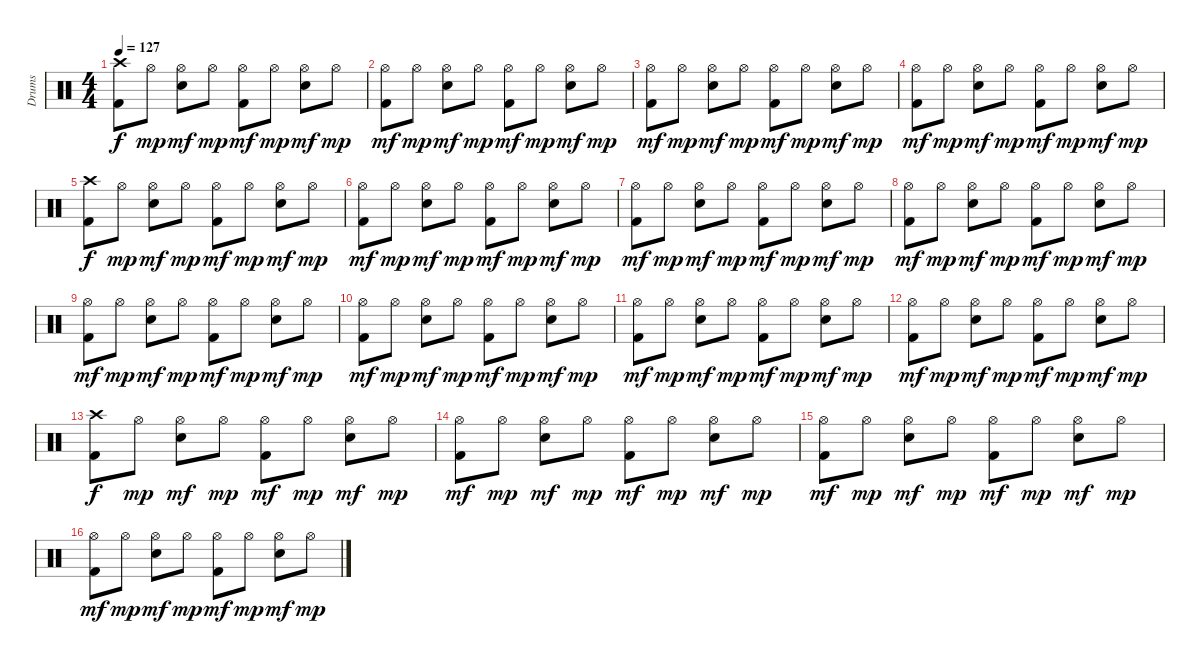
\track ("Drums" "Drums") {instrument percussion}
\staff {score}
\articulation defaults
\ts (4 4)
\tempo 127
\clef neutral
\ks c
("Crash high (hit)" "Kick (hit) 2").8{dy f} "Hi-Hat (open)".8{dy mp} ("Hi-Hat (open)" "Electric Snare (hit)").8{dy mf} "Hi-Hat (open)".8{dy mp} ("Hi-Hat (open)" "Kick (hit) 2").8{dy mf} "Hi-Hat (open)".8{dy mp} ("Hi-Hat (open)" "Electric Snare (hit)").8{dy mf} "Hi-Hat (open)".8{dy mp} |
("Hi-Hat (open)" "Kick (hit) 2").8{dy mf} "Hi-Hat (open)".8{dy mp} ("Hi-Hat (open)" "Electric Snare (hit)").8{dy mf} "Hi-Hat (open)".8{dy mp} ("Hi-Hat (open)" "Kick (hit) 2").8{dy mf} "Hi-Hat (open)".8{dy mp} ("Hi-Hat (open)" "Electric Snare (hit)").8{dy mf} "Hi-Hat (open)".8{dy mp} |
("Hi-Hat (open)" "Kick (hit) 2").8{dy mf} "Hi-Hat (open)".8{dy mp} ("Hi-Hat (open)" "Electric Snare (hit)").8{dy mf} "Hi-Hat (open)".8{dy mp} ("Hi-Hat (open)" "Kick (hit) 2").8{dy mf} "Hi-Hat (open)".8{dy mp} ("Hi-Hat (open)" "Electric Snare (hit)").8{dy mf} "Hi-Hat (open)".8{dy mp} |
("Hi-Hat (open)" "Kick (hit) 2").8{dy mf} "Hi-Hat (open)".8{dy mp} ("Hi-Hat (open)" "Electric Snare (hit)").8{dy mf} "Hi-Hat (open)".8{dy mp} ("Hi-Hat (open)" "Kick (hit) 2").8{dy mf} "Hi-Hat (open)".8{dy mp} ("Hi-Hat (open)" "Electric Snare (hit)").8{dy mf} "Hi-Hat (open)".8{dy mp} |
("Crash high (hit)" "Kick (hit) 2").8{dy f} "Hi-Hat (open)".8{dy mp} ("Hi-Hat (open)" "Electric Snare (hit)").8{dy mf} "Hi-Hat (open)".8{dy mp} ("Hi-Hat (open)" "Kick (hit) 2").8{dy mf} "Hi-Hat (open)".8{dy mp} ("Hi-Hat (open)" "Electric Snare (hit)").8{dy mf} "Hi-Hat (open)".8{dy mp} |
("Hi-Hat (open)" "Kick (hit) 2").8{dy mf} "Hi-Hat (open)".8{dy mp} ("Hi-Hat (open)" "Electric Snare (hit)").8{dy mf} "Hi-Hat (open)".8{dy mp} ("Hi-Hat (open)" "Kick (hit) 2").8{dy mf} "Hi-Hat (open)".8{dy mp} ("Hi-Hat (open)" "Electric Snare (hit)").8{dy mf} "Hi-Hat (open)".8{dy mp} |
("Hi-Hat (open)" "Kick (hit) 2").8{dy mf} "Hi-Hat (open)".8{dy mp} ("Hi-Hat (open)" "Electric Snare (hit)").8{dy mf} "Hi-Hat (open)".8{dy mp} ("Hi-Hat (open)" "Kick (hit) 2").8{dy mf} "Hi-Hat (open)".8{dy mp} ("Hi-Hat (open)" "Electric Snare (hit)").8{dy mf} "Hi-Hat (open)".8{dy mp} |
("Hi-Hat (open)" "Kick (hit) 2").8{dy mf} "Hi-Hat (open)".8{dy mp} ("Hi-Hat (open)" "Electric Snare (hit)").8{dy mf} "Hi-Hat (open)".8{dy mp} ("Hi-Hat (open)" "Kick (hit) 2").8{dy mf} "Hi-Hat (open)".8{dy mp} ("Hi-Hat (open)" "Electric Snare (hit)").8{dy mf} "Hi-Hat (open)".8{dy mp} |
("Hi-Hat (open)" "Kick (hit) 2").8{dy mf} "Hi-Hat (open)".8{dy mp} ("Hi-Hat (open)" "Electric Snare (hit)").8{dy mf} "Hi-Hat (open)".8{dy mp} ("Hi-Hat (open)" "Kick (hit) 2").8{dy mf} "Hi-Hat (open)".8{dy mp} ("Hi-Hat (open)" "Electric Snare (hit)").8{dy mf} "Hi-Hat (open)".8{dy mp} |
("Hi-Hat (open)" "Kick (hit) 2").8{dy mf} "Hi-Hat (open)".8{dy mp} ("Hi-Hat (open)" "Electric Snare (hit)").8{dy mf} "Hi-Hat (open)".8{dy mp} ("Hi-Hat (open)" "Kick (hit) 2").8{dy mf} "Hi-Hat (open)".8{dy mp} ("Hi-Hat (open)" "Electric Snare (hit)").8{dy mf} "Hi-Hat (open)".8{dy mp} |
("Hi-Hat (open)" "Kick (hit) 2").8{dy mf} "Hi-Hat (open)".8{dy mp} ("Hi-Hat (open)" "Electric Snare (hit)").8{dy mf} "Hi-Hat (open)".8{dy mp} ("Hi-Hat (open)" "Kick (hit) 2").8{dy mf} "Hi-Hat (open)".8{dy mp} ("Hi-Hat (open)" "Electric Snare (hit)").8{dy mf} "Hi-Hat (open)".8{dy mp} |
("Hi-Hat (open)" "Kick (hit) 2").8{dy mf} "Hi-Hat (open)".8{dy mp} ("Hi-Hat (open)" "Electric Snare (hit)").8{dy mf} "Hi-Hat (open)".8{dy mp} ("Hi-Hat (open)" "Kick (hit) 2").8{dy mf} "Hi-Hat (open)".8{dy mp} ("Hi-Hat (open)" "Electric Snare (hit)").8{dy mf} "Hi-Hat (open)".8{dy mp} |
("Crash high (hit)" "Kick (hit) 2").8{dy f} "Hi-Hat (open)".8{dy mp} ("Hi-Hat (open)" "Electric Snare (hit)").8{dy mf} "Hi-Hat (open)".8{dy mp} ("Hi-Hat (open)" "Kick (hit) 2").8{dy mf} "Hi-Hat (open)".8{dy mp} ("Hi-Hat (open)" "Electric Snare (hit)").8{dy mf} "Hi-Hat (open)".8{dy mp} |
("Hi-Hat (open)" "Kick (hit) 2").8{dy mf} "Hi-Hat (open)".8{dy mp} ("Hi-Hat (open)" "Electric Snare (hit)").8{dy mf} "Hi-Hat (open)".8{dy mp} ("Hi-Hat (open)" "Kick (hit) 2").8{dy mf} "Hi-Hat (open)".8{dy mp} ("Hi-Hat (open)" "Electric Snare (hit)").8{dy mf} "Hi-Hat (open)".8{dy mp} |
("Hi-Hat (open)" "Kick (hit) 2").8{dy mf} "Hi-Hat (open)".8{dy mp} ("Hi-Hat (open)" "Electric Snare (hit)").8{dy mf} "Hi-Hat (open)".8{dy mp} ("Hi-Hat (open)" "Kick (hit) 2").8{dy mf} "Hi-Hat (open)".8{dy mp} ("Hi-Hat (open)" "Electric Snare (hit)").8{dy mf} "Hi-Hat (open)".8{dy mp} |
("Hi-Hat (open)" "Kick (hit) 2").8{dy mf} "Hi-Hat (open)".8{dy mp} ("Hi-Hat (open)" "Electric Snare (hit)").8{dy mf} "Hi-Hat (open)".8{dy mp} ("Hi-Hat (open)" "Kick (hit) 2").8{dy mf} "Hi-Hat (open)".8{dy mp} ("Hi-Hat (open)" "Electric Snare (hit)").8{dy mf} "Hi-Hat (open)".8{dy mp}
